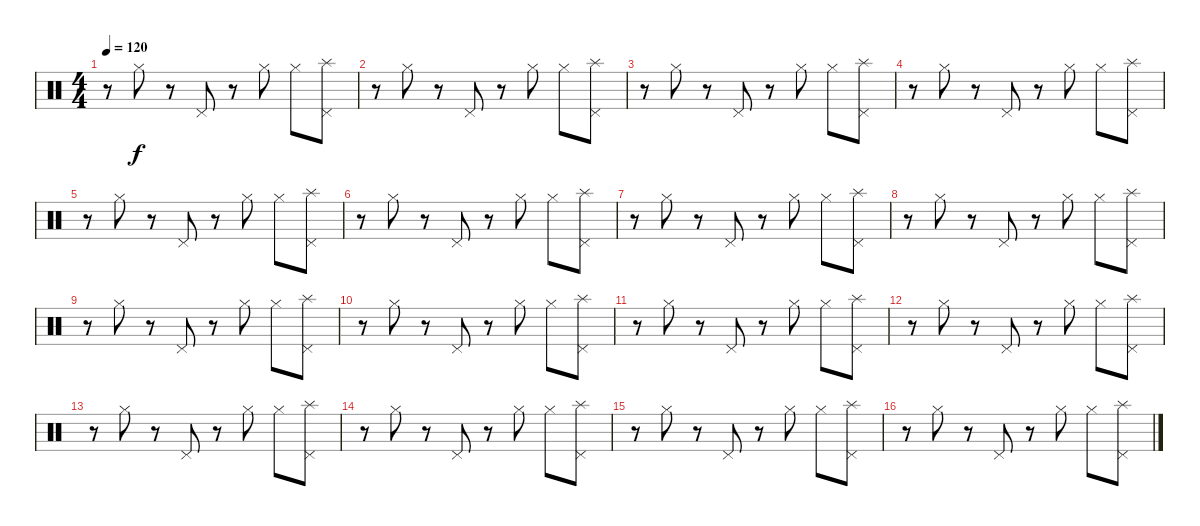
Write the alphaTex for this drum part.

\track "" {instrument percussion}
\staff {score}
\articulation defaults
\ts (4 4)
\tempo 120
\clef neutral
\ks c
r.8{dy f} "Hi-Hat (closed)".8 r.8 "Pedal Hi-Hat (hit)".8 r.8 "Hi-Hat (closed)".8 "Hi-Hat (closed)".8 ("Pedal Hi-Hat (hit)" "Splash (hit)").8 |
r.8 "Hi-Hat (closed)".8 r.8 "Pedal Hi-Hat (hit)".8 r.8 "Hi-Hat (closed)".8 "Hi-Hat (closed)".8 ("Pedal Hi-Hat (hit)" "Splash (hit)").8 |
r.8 "Hi-Hat (closed)".8 r.8 "Pedal Hi-Hat (hit)".8 r.8 "Hi-Hat (closed)".8 "Hi-Hat (closed)".8 ("Pedal Hi-Hat (hit)" "Splash (hit)").8 |
r.8 "Hi-Hat (closed)".8 r.8 "Pedal Hi-Hat (hit)".8 r.8 "Hi-Hat (closed)".8 "Hi-Hat (closed)".8 ("Pedal Hi-Hat (hit)" "Splash (hit)").8 |
r.8 "Hi-Hat (closed)".8 r.8 "Pedal Hi-Hat (hit)".8 r.8 "Hi-Hat (closed)".8 "Hi-Hat (closed)".8 ("Pedal Hi-Hat (hit)" "Splash (hit)").8 |
r.8 "Hi-Hat (closed)".8 r.8 "Pedal Hi-Hat (hit)".8 r.8 "Hi-Hat (closed)".8 "Hi-Hat (closed)".8 ("Pedal Hi-Hat (hit)" "Splash (hit)").8 |
r.8 "Hi-Hat (closed)".8 r.8 "Pedal Hi-Hat (hit)".8 r.8 "Hi-Hat (closed)".8 "Hi-Hat (closed)".8 ("Pedal Hi-Hat (hit)" "Splash (hit)").8 |
r.8 "Hi-Hat (closed)".8 r.8 "Pedal Hi-Hat (hit)".8 r.8 "Hi-Hat (closed)".8 "Hi-Hat (closed)".8 ("Pedal Hi-Hat (hit)" "Splash (hit)").8 |
r.8 "Hi-Hat (closed)".8 r.8 "Pedal Hi-Hat (hit)".8 r.8 "Hi-Hat (closed)".8 "Hi-Hat (closed)".8 ("Pedal Hi-Hat (hit)" "Splash (hit)").8 |
r.8 "Hi-Hat (closed)".8 r.8 "Pedal Hi-Hat (hit)".8 r.8 "Hi-Hat (closed)".8 "Hi-Hat (closed)".8 ("Pedal Hi-Hat (hit)" "Splash (hit)").8 |
r.8 "Hi-Hat (closed)".8 r.8 "Pedal Hi-Hat (hit)".8 r.8 "Hi-Hat (closed)".8 "Hi-Hat (closed)".8 ("Pedal Hi-Hat (hit)" "Splash (hit)").8 |
r.8 "Hi-Hat (closed)".8 r.8 "Pedal Hi-Hat (hit)".8 r.8 "Hi-Hat (closed)".8 "Hi-Hat (closed)".8 ("Pedal Hi-Hat (hit)" "Splash (hit)").8 |
r.8 "Hi-Hat (closed)".8 r.8 "Pedal Hi-Hat (hit)".8 r.8 "Hi-Hat (closed)".8 "Hi-Hat (closed)".8 ("Pedal Hi-Hat (hit)" "Splash (hit)").8 |
r.8 "Hi-Hat (closed)".8 r.8 "Pedal Hi-Hat (hit)".8 r.8 "Hi-Hat (closed)".8 "Hi-Hat (closed)".8 ("Pedal Hi-Hat (hit)" "Splash (hit)").8 |
r.8 "Hi-Hat (closed)".8 r.8 "Pedal Hi-Hat (hit)".8 r.8 "Hi-Hat (closed)".8 "Hi-Hat (closed)".8 ("Pedal Hi-Hat (hit)" "Splash (hit)").8 |
r.8 "Hi-Hat (closed)".8 r.8 "Pedal Hi-Hat (hit)".8 r.8 "Hi-Hat (closed)".8 "Hi-Hat (closed)".8 ("Pedal Hi-Hat (hit)" "Splash (hit)").8
